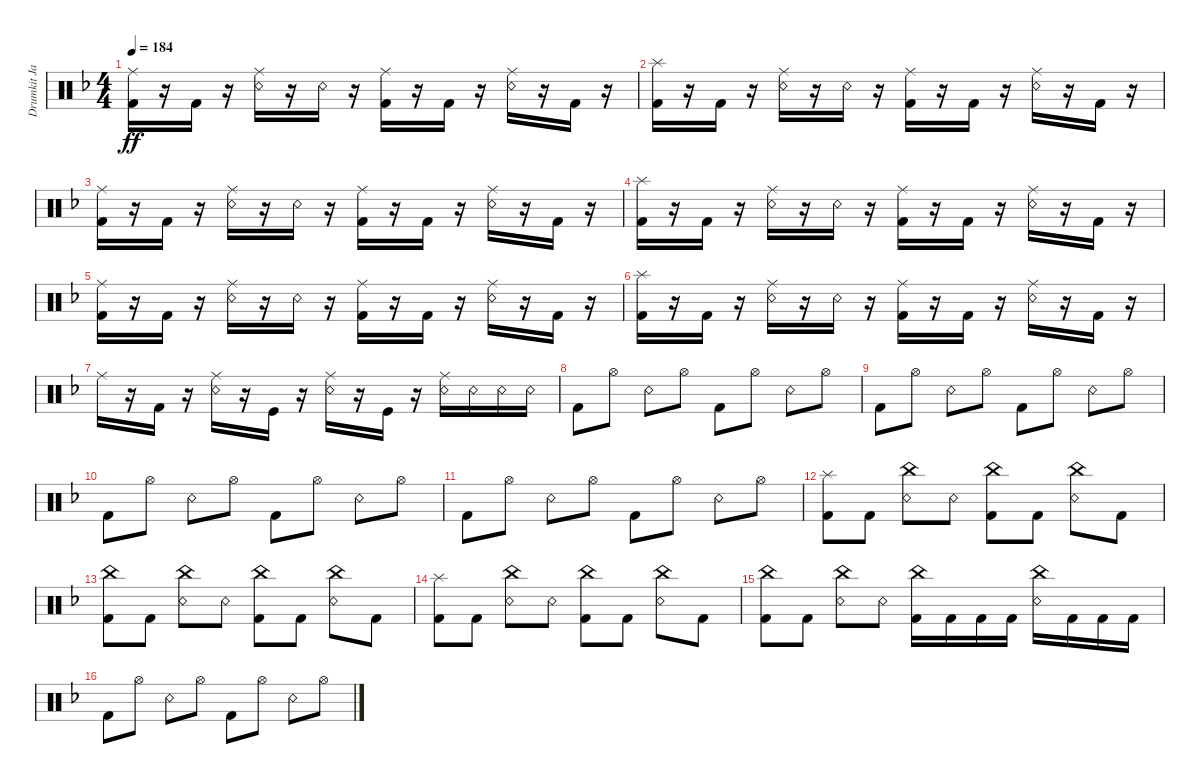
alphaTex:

\track ("Drumkit Jason" "Drumkit Ja") {instrument percussion}
\staff {score}
\articulation defaults
\ts (4 4)
\tempo 184
\clef neutral
\ks dminor
("Kick (hit) 2" "Ride (middle)").16{dy ff} r.16 "Kick (hit) 2".16 r.16 ("Snare (rim shot)" "Ride (middle)").16 r.16 "Snare (rim shot)".16 r.16 ("Kick (hit) 2" "Ride (middle)").16 r.16 "Kick (hit) 2".16 r.16 ("Snare (rim shot)" "Ride (middle)").16 r.16 "Kick (hit) 2".16 r.16 |
("Kick (hit) 2" "Splash (hit)").16 r.16 "Kick (hit) 2".16 r.16 ("Snare (rim shot)" "Ride (middle)").16 r.16 "Snare (rim shot)".16 r.16 ("Kick (hit) 2" "Ride (middle)").16 r.16 "Kick (hit) 2".16 r.16 ("Snare (rim shot)" "Ride (middle)").16 r.16 "Kick (hit) 2".16 r.16 |
("Kick (hit) 2" "Ride (middle)").16 r.16 "Kick (hit) 2".16 r.16 ("Snare (rim shot)" "Ride (middle)").16 r.16 "Snare (rim shot)".16 r.16 ("Kick (hit) 2" "Ride (middle)").16 r.16 "Kick (hit) 2".16 r.16 ("Snare (rim shot)" "Ride (middle)").16 r.16 "Kick (hit) 2".16 r.16 |
("Kick (hit) 2" "Splash (hit)").16 r.16 "Kick (hit) 2".16 r.16 ("Snare (rim shot)" "Ride (middle)").16 r.16 "Snare (rim shot)".16 r.16 ("Kick (hit) 2" "Ride (middle)").16 r.16 "Kick (hit) 2".16 r.16 ("Snare (rim shot)" "Ride (middle)").16 r.16 "Kick (hit) 2".16 r.16 |
("Kick (hit) 2" "Ride (middle)").16 r.16 "Kick (hit) 2".16 r.16 ("Snare (rim shot)" "Ride (middle)").16 r.16 "Snare (rim shot)".16 r.16 ("Kick (hit) 2" "Ride (middle)").16 r.16 "Kick (hit) 2".16 r.16 ("Snare (rim shot)" "Ride (middle)").16 r.16 "Kick (hit) 2".16 r.16 |
("Kick (hit) 2" "Splash (hit)").16 r.16 "Kick (hit) 2".16 r.16 ("Snare (rim shot)" "Ride (middle)").16 r.16 "Snare (rim shot)".16 r.16 ("Kick (hit) 2" "Ride (middle)").16 r.16 "Kick (hit) 2".16 r.16 ("Snare (rim shot)" "Ride (middle)").16 r.16 "Kick (hit) 2".16 r.16 |
"Ride (middle)".16 r.16 "Kick (hit) 2".16 r.16 ("Snare (rim shot)" "Ride (middle)").16 r.16 "Kick (hit)".16 r.16 ("Snare (rim shot)" "Ride (middle)").16 r.16 "Kick (hit)".16 r.16 ("Snare (rim shot)" "Ride (middle)").16 "Snare (rim shot)".16 "Snare (rim shot)".16 "Snare (rim shot)".16 |
"Kick (hit) 2".8 "Hi-Hat (open)".8 "Snare (rim shot)".8 "Hi-Hat (open)".8 "Kick (hit) 2".8 "Hi-Hat (open)".8 "Snare (rim shot)".8 "Hi-Hat (open)".8 |
"Kick (hit) 2".8 "Hi-Hat (open)".8 "Snare (rim shot)".8 "Hi-Hat (open)".8 "Kick (hit) 2".8 "Hi-Hat (open)".8 "Snare (rim shot)".8 "Hi-Hat (open)".8 |
"Kick (hit) 2".8 "Hi-Hat (open)".8 "Snare (rim shot)".8 "Hi-Hat (open)".8 "Kick (hit) 2".8 "Hi-Hat (open)".8 "Snare (rim shot)".8 "Hi-Hat (open)".8 |
"Kick (hit) 2".8 "Hi-Hat (open)".8 "Snare (rim shot)".8 "Hi-Hat (open)".8 "Kick (hit) 2".8 "Hi-Hat (open)".8 "Snare (rim shot)".8 "Hi-Hat (open)".8 |
("Kick (hit) 2" "Splash (hit)").8 "Kick (hit) 2".8 ("Snare (rim shot)" "China (hit)").8 "Snare (rim shot)".8 ("Kick (hit) 2" "China (hit)").8 "Kick (hit) 2".8 ("Snare (rim shot)" "China (hit)").8 "Kick (hit) 2".8 |
("Kick (hit) 2" "China (hit)").8 "Kick (hit) 2".8 ("Snare (rim shot)" "China (hit)").8 "Snare (rim shot)".8 ("Kick (hit) 2" "China (hit)").8 "Kick (hit) 2".8 ("Snare (rim shot)" "China (hit)").8 "Kick (hit) 2".8 |
("Kick (hit) 2" "Splash (hit)").8 "Kick (hit) 2".8 ("Snare (rim shot)" "China (hit)").8 "Snare (rim shot)".8 ("Kick (hit) 2" "China (hit)").8 "Kick (hit) 2".8 ("Snare (rim shot)" "China (hit)").8 "Kick (hit) 2".8 |
("Kick (hit) 2" "China (hit)").8 "Kick (hit) 2".8 ("Snare (rim shot)" "China (hit)").8 "Snare (rim shot)".8 ("Kick (hit) 2" "China (hit)").16 "Kick (hit) 2".16 "Kick (hit) 2".16 "Kick (hit) 2".16 ("Snare (rim shot)" "China (hit)").16 "Kick (hit) 2".16 "Kick (hit) 2".16 "Kick (hit) 2".16 |
"Kick (hit) 2".8 "Hi-Hat (open)".8 "Snare (rim shot)".8 "Hi-Hat (open)".8 "Kick (hit) 2".8 "Hi-Hat (open)".8 "Snare (rim shot)".8 "Hi-Hat (open)".8
